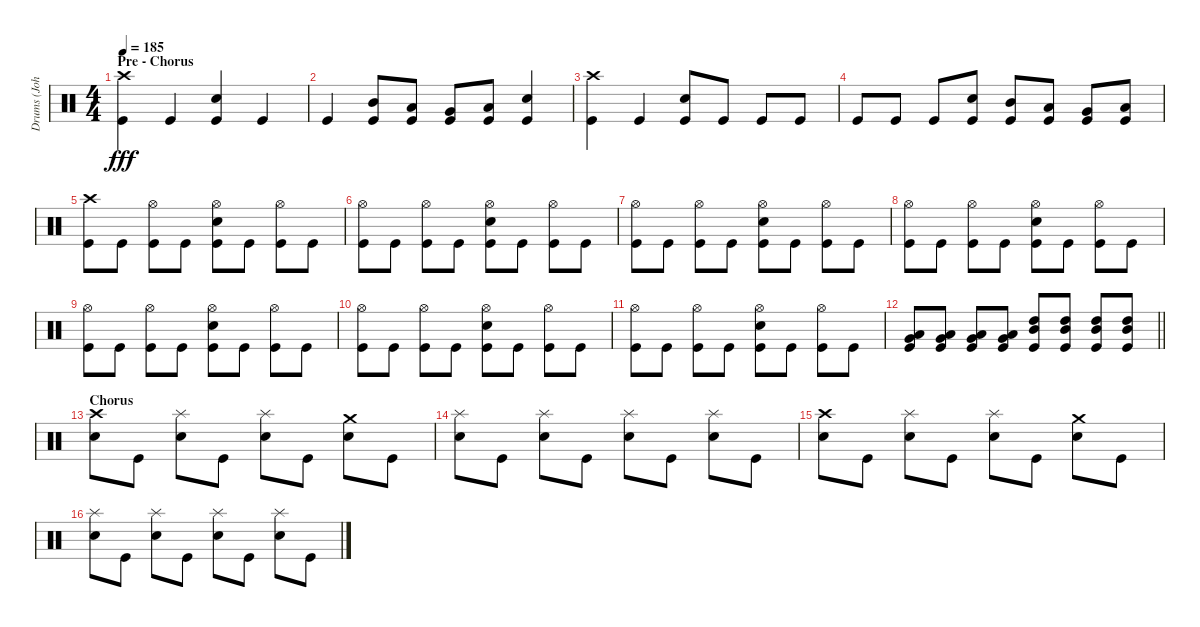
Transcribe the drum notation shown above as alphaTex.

\track ("Drums (John Bengtsson)" "Drums (Joh") {instrument percussion}
\staff {score}
\articulation defaults
\ts (4 4)
\section ("" "Pre - Chorus")
\tempo 185
\clef neutral
\ks c
("Crash high (hit)" "Kick (hit)").4{dy fff} "Kick (hit)".4 ("Electric Snare (hit)" "Kick (hit)").4 "Kick (hit)".4 |
"Kick (hit)".4 ("Mid Tom (hit)" "Kick (hit)").8 ("Low Tom (hit)" "Kick (hit)").8 ("Very Low Tom (hit)" "Kick (hit)").8 ("Low Floor Tom (hit)" "Kick (hit)").8 ("Electric Snare (hit)" "Kick (hit)").4 |
("Crash high (hit)" "Kick (hit)").4 "Kick (hit)".4 ("Electric Snare (hit)" "Kick (hit)").8 "Kick (hit)".8 "Kick (hit)".8 "Kick (hit)".8 |
"Kick (hit)".8 "Kick (hit)".8 "Kick (hit)".8 ("Electric Snare (hit)" "Kick (hit)").8 ("Mid Tom (hit)" "Kick (hit)").8 ("Low Tom (hit)" "Kick (hit)").8 ("Very Low Tom (hit)" "Kick (hit)").8 ("Low Floor Tom (hit)" "Kick (hit)").8 |
("Crash high (hit)" "Kick (hit)").8 "Kick (hit)".8 ("Hi-Hat (open)" "Kick (hit)").8 "Kick (hit)".8 ("Hi-Hat (open)" "Electric Snare (hit)" "Kick (hit)").8 "Kick (hit)".8 ("Hi-Hat (open)" "Kick (hit)").8 "Kick (hit)".8 |
("Hi-Hat (open)" "Kick (hit)").8 "Kick (hit)".8 ("Hi-Hat (open)" "Kick (hit)").8 "Kick (hit)".8 ("Hi-Hat (open)" "Electric Snare (hit)" "Kick (hit)").8 "Kick (hit)".8 ("Hi-Hat (open)" "Kick (hit)").8 "Kick (hit)".8 |
("Hi-Hat (open)" "Kick (hit)").8 "Kick (hit)".8 ("Hi-Hat (open)" "Kick (hit)").8 "Kick (hit)".8 ("Hi-Hat (open)" "Electric Snare (hit)" "Kick (hit)").8 "Kick (hit)".8 ("Hi-Hat (open)" "Kick (hit)").8 "Kick (hit)".8 |
("Hi-Hat (open)" "Kick (hit)").8 "Kick (hit)".8 ("Hi-Hat (open)" "Kick (hit)").8 "Kick (hit)".8 ("Hi-Hat (open)" "Electric Snare (hit)" "Kick (hit)").8 "Kick (hit)".8 ("Hi-Hat (open)" "Kick (hit)").8 "Kick (hit)".8 |
("Hi-Hat (open)" "Kick (hit)").8 "Kick (hit)".8 ("Hi-Hat (open)" "Kick (hit)").8 "Kick (hit)".8 ("Hi-Hat (open)" "Electric Snare (hit)" "Kick (hit)").8 "Kick (hit)".8 ("Hi-Hat (open)" "Kick (hit)").8 "Kick (hit)".8 |
("Hi-Hat (open)" "Kick (hit)").8 "Kick (hit)".8 ("Hi-Hat (open)" "Kick (hit)").8 "Kick (hit)".8 ("Hi-Hat (open)" "Electric Snare (hit)" "Kick (hit)").8 "Kick (hit)".8 ("Hi-Hat (open)" "Kick (hit)").8 "Kick (hit)".8 |
("Hi-Hat (open)" "Kick (hit)").8 "Kick (hit)".8 ("Hi-Hat (open)" "Kick (hit)").8 "Kick (hit)".8 ("Hi-Hat (open)" "Electric Snare (hit)" "Kick (hit)").8 "Kick (hit)".8 ("Hi-Hat (open)" "Kick (hit)").8 "Kick (hit)".8 |
\barLineRight lightlight
("Low Tom (hit)" "Very Low Tom (hit)" "Kick (hit)").8 ("Low Tom (hit)" "Very Low Tom (hit)" "Kick (hit)").8 ("Low Tom (hit)" "Very Low Tom (hit)" "Kick (hit)").8 ("Low Tom (hit)" "Very Low Tom (hit)" "Kick (hit)").8 ("High Tom (hit)" "Mid Tom (hit)" "Kick (hit)").8 ("High Tom (hit)" "Mid Tom (hit)" "Kick (hit)").8 ("High Tom (hit)" "Mid Tom (hit)" "Kick (hit)").8 ("High Tom (hit)" "Mid Tom (hit)" "Kick (hit)").8 |
\section ("" "Chorus")
("Crash high (hit)" "Electric Snare (hit)").8 "Kick (hit)".8 ("Splash (hit)" "Electric Snare (hit)").8 "Kick (hit)".8 ("Splash (hit)" "Electric Snare (hit)").8 "Kick (hit)".8 ("Crash medium (hit)" "Electric Snare (hit)").8 "Kick (hit)".8 |
("Splash (hit)" "Electric Snare (hit)").8 "Kick (hit)".8 ("Splash (hit)" "Electric Snare (hit)").8 "Kick (hit)".8 ("Splash (hit)" "Electric Snare (hit)").8 "Kick (hit)".8 ("Splash (hit)" "Electric Snare (hit)").8 "Kick (hit)".8 |
("Crash high (hit)" "Electric Snare (hit)").8 "Kick (hit)".8 ("Splash (hit)" "Electric Snare (hit)").8 "Kick (hit)".8 ("Splash (hit)" "Electric Snare (hit)").8 "Kick (hit)".8 ("Crash medium (hit)" "Electric Snare (hit)").8 "Kick (hit)".8 |
("Splash (hit)" "Electric Snare (hit)").8 "Kick (hit)".8 ("Splash (hit)" "Electric Snare (hit)").8 "Kick (hit)".8 ("Splash (hit)" "Electric Snare (hit)").8 "Kick (hit)".8 ("Splash (hit)" "Electric Snare (hit)").8 "Kick (hit)".8
